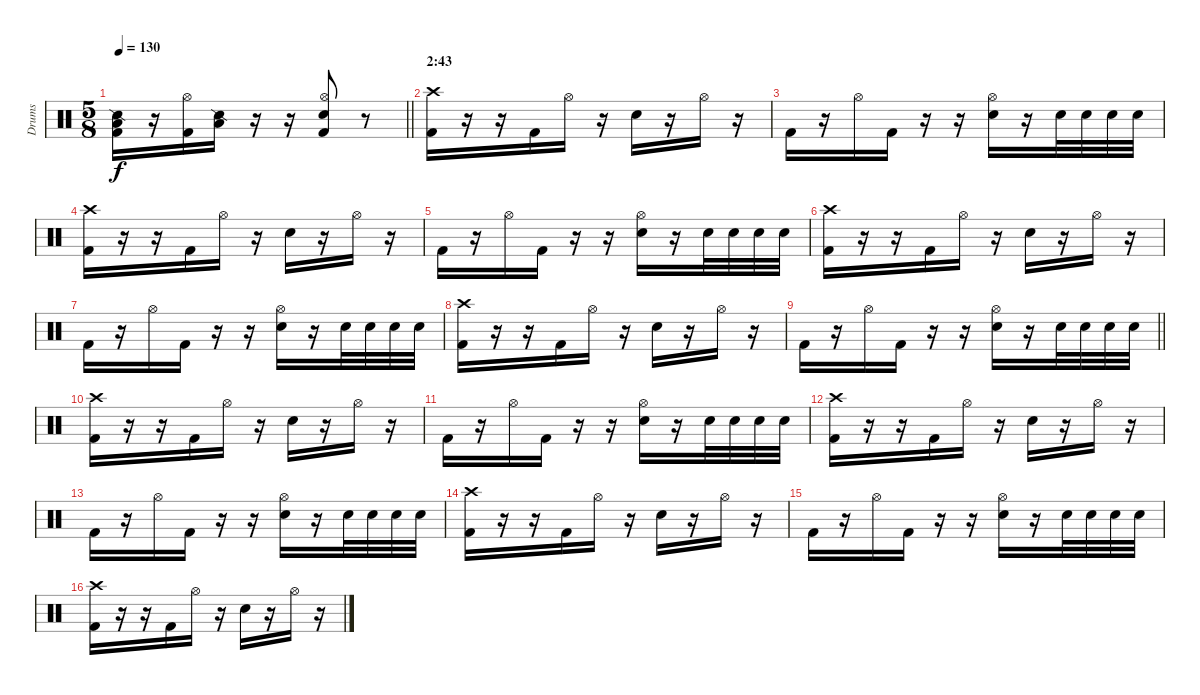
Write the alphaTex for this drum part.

\track ("Drums" "Drums") {instrument percussion}
\staff {score}
\articulation defaults
\ts (5 8)
\tempo 130
\clef neutral
\barLineRight lightlight
\ks c
("Low Floor Tom (hit)" "Snare (side stick) 2" "Kick (hit) 2").16{dy f} r.16 ("Hi-Hat (open)" "Kick (hit) 2").16 ("Low Floor Tom (hit)" "Snare (side stick) 2").16 r.16 r.16 ("Hi-Hat (open)" "Electric Snare (hit)" "Kick (hit) 2").8 r.8 |
\section ("" "2:43")
("Crash high (hit)" "Kick (hit) 2").16 r.16 r.16 "Kick (hit) 2".16 "Hi-Hat (open)".16 r.16 "Electric Snare (hit)".16 r.16 "Hi-Hat (open)".16 r.16 |
"Kick (hit) 2".16 r.16 "Hi-Hat (open)".16 "Kick (hit) 2".16 r.16 r.16 ("Hi-Hat (open)" "Electric Snare (hit)").16 r.16 "Electric Snare (hit)".32 "Electric Snare (hit)".32 "Electric Snare (hit)".32 "Electric Snare (hit)".32 |
("Crash high (hit)" "Kick (hit) 2").16 r.16 r.16 "Kick (hit) 2".16 "Hi-Hat (open)".16 r.16 "Electric Snare (hit)".16 r.16 "Hi-Hat (open)".16 r.16 |
"Kick (hit) 2".16 r.16 "Hi-Hat (open)".16 "Kick (hit) 2".16 r.16 r.16 ("Hi-Hat (open)" "Electric Snare (hit)").16 r.16 "Electric Snare (hit)".32 "Electric Snare (hit)".32 "Electric Snare (hit)".32 "Electric Snare (hit)".32 |
("Crash high (hit)" "Kick (hit) 2").16 r.16 r.16 "Kick (hit) 2".16 "Hi-Hat (open)".16 r.16 "Electric Snare (hit)".16 r.16 "Hi-Hat (open)".16 r.16 |
"Kick (hit) 2".16 r.16 "Hi-Hat (open)".16 "Kick (hit) 2".16 r.16 r.16 ("Hi-Hat (open)" "Electric Snare (hit)").16 r.16 "Electric Snare (hit)".32 "Electric Snare (hit)".32 "Electric Snare (hit)".32 "Electric Snare (hit)".32 |
("Crash high (hit)" "Kick (hit) 2").16 r.16 r.16 "Kick (hit) 2".16 "Hi-Hat (open)".16 r.16 "Electric Snare (hit)".16 r.16 "Hi-Hat (open)".16 r.16 |
\barLineRight lightlight "Kick (hit) 2".16
r.16 "Hi-Hat (open)".16 "Kick (hit) 2".16 r.16 r.16 ("Hi-Hat (open)" "Electric Snare (hit)").16 r.16 "Electric Snare (hit)".32 "Electric Snare (hit)".32 "Electric Snare (hit)".32 "Electric Snare (hit)".32 |
("Crash high (hit)" "Kick (hit) 2").16 r.16 r.16 "Kick (hit) 2".16 "Hi-Hat (open)".16 r.16 "Electric Snare (hit)".16 r.16 "Hi-Hat (open)".16 r.16 |
"Kick (hit) 2".16 r.16 "Hi-Hat (open)".16 "Kick (hit) 2".16 r.16 r.16 ("Hi-Hat (open)" "Electric Snare (hit)").16 r.16 "Electric Snare (hit)".32 "Electric Snare (hit)".32 "Electric Snare (hit)".32 "Electric Snare (hit)".32 |
("Crash high (hit)" "Kick (hit) 2").16 r.16 r.16 "Kick (hit) 2".16 "Hi-Hat (open)".16 r.16 "Electric Snare (hit)".16 r.16 "Hi-Hat (open)".16 r.16 |
"Kick (hit) 2".16 r.16 "Hi-Hat (open)".16 "Kick (hit) 2".16 r.16 r.16 ("Hi-Hat (open)" "Electric Snare (hit)").16 r.16 "Electric Snare (hit)".32 "Electric Snare (hit)".32 "Electric Snare (hit)".32 "Electric Snare (hit)".32 |
("Crash high (hit)" "Kick (hit) 2").16 r.16 r.16 "Kick (hit) 2".16 "Hi-Hat (open)".16 r.16 "Electric Snare (hit)".16 r.16 "Hi-Hat (open)".16 r.16 |
"Kick (hit) 2".16 r.16 "Hi-Hat (open)".16 "Kick (hit) 2".16 r.16 r.16 ("Hi-Hat (open)" "Electric Snare (hit)").16 r.16 "Electric Snare (hit)".32 "Electric Snare (hit)".32 "Electric Snare (hit)".32 "Electric Snare (hit)".32 |
("Crash high (hit)" "Kick (hit) 2").16 r.16 r.16 "Kick (hit) 2".16 "Hi-Hat (open)".16 r.16 "Electric Snare (hit)".16 r.16 "Hi-Hat (open)".16 r.16
